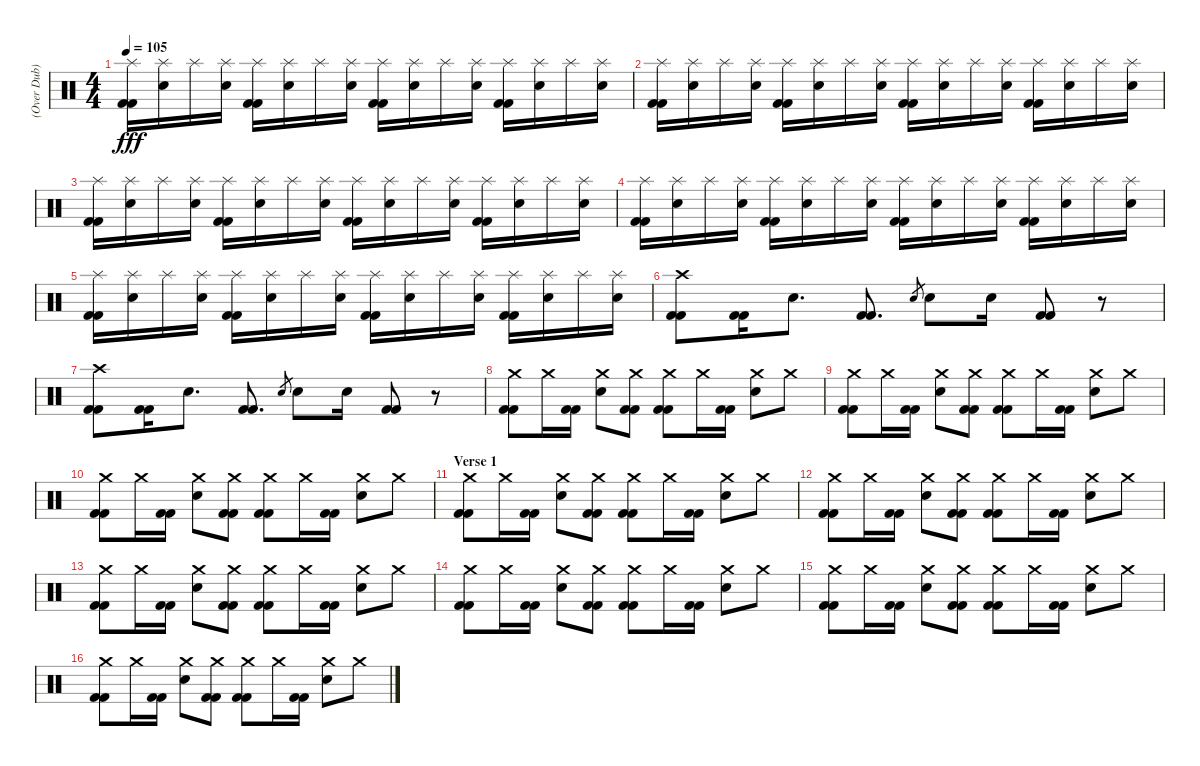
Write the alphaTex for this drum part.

\track ("(Over Dub)" "(Over Dub)") {instrument percussion}
\staff {score}
\articulation defaults
\ts (4 4)
\tempo 105
\clef neutral
\ks c
("Splash (hit)" "Kick (hit) 2" "Kick (hit) 2").16{dy fff} ("Splash (hit)" "Electric Snare (hit)").16 "Splash (hit)".16 ("Splash (hit)" "Electric Snare (hit)").16 ("Splash (hit)" "Kick (hit) 2" "Kick (hit) 2").16 ("Splash (hit)" "Electric Snare (hit)").16 "Splash (hit)".16 ("Splash (hit)" "Electric Snare (hit)").16 ("Splash (hit)" "Kick (hit) 2" "Kick (hit) 2").16 ("Splash (hit)" "Electric Snare (hit)").16 "Splash (hit)".16 ("Splash (hit)" "Electric Snare (hit)").16 ("Splash (hit)" "Kick (hit) 2" "Kick (hit) 2").16 ("Splash (hit)" "Electric Snare (hit)").16 "Splash (hit)".16 ("Splash (hit)" "Electric Snare (hit)").16 |
("Splash (hit)" "Kick (hit) 2" "Kick (hit) 2").16 ("Splash (hit)" "Electric Snare (hit)").16 "Splash (hit)".16 ("Splash (hit)" "Electric Snare (hit)").16 ("Splash (hit)" "Kick (hit) 2" "Kick (hit) 2").16 ("Splash (hit)" "Electric Snare (hit)").16 "Splash (hit)".16 ("Splash (hit)" "Electric Snare (hit)").16 ("Splash (hit)" "Kick (hit) 2" "Kick (hit) 2").16 ("Splash (hit)" "Electric Snare (hit)").16 "Splash (hit)".16 ("Splash (hit)" "Electric Snare (hit)").16 ("Splash (hit)" "Kick (hit) 2" "Kick (hit) 2").16 ("Splash (hit)" "Electric Snare (hit)").16 "Splash (hit)".16 ("Splash (hit)" "Electric Snare (hit)").16 |
("Splash (hit)" "Kick (hit) 2" "Kick (hit) 2").16 ("Splash (hit)" "Electric Snare (hit)").16 "Splash (hit)".16 ("Splash (hit)" "Electric Snare (hit)").16 ("Splash (hit)" "Kick (hit) 2" "Kick (hit) 2").16 ("Splash (hit)" "Electric Snare (hit)").16 "Splash (hit)".16 ("Splash (hit)" "Electric Snare (hit)").16 ("Splash (hit)" "Kick (hit) 2" "Kick (hit) 2").16 ("Splash (hit)" "Electric Snare (hit)").16 "Splash (hit)".16 ("Splash (hit)" "Electric Snare (hit)").16 ("Splash (hit)" "Kick (hit) 2" "Kick (hit) 2").16 ("Splash (hit)" "Electric Snare (hit)").16 "Splash (hit)".16 ("Splash (hit)" "Electric Snare (hit)").16 |
("Splash (hit)" "Kick (hit) 2" "Kick (hit) 2").16 ("Splash (hit)" "Electric Snare (hit)").16 "Splash (hit)".16 ("Splash (hit)" "Electric Snare (hit)").16 ("Splash (hit)" "Kick (hit) 2" "Kick (hit) 2").16 ("Splash (hit)" "Electric Snare (hit)").16 "Splash (hit)".16 ("Splash (hit)" "Electric Snare (hit)").16 ("Splash (hit)" "Kick (hit) 2" "Kick (hit) 2").16 ("Splash (hit)" "Electric Snare (hit)").16 "Splash (hit)".16 ("Splash (hit)" "Electric Snare (hit)").16 ("Splash (hit)" "Kick (hit) 2" "Kick (hit) 2").16 ("Splash (hit)" "Electric Snare (hit)").16 "Splash (hit)".16 ("Splash (hit)" "Electric Snare (hit)").16 |
("Splash (hit)" "Kick (hit) 2" "Kick (hit) 2").16 ("Splash (hit)" "Electric Snare (hit)").16 "Splash (hit)".16 ("Splash (hit)" "Electric Snare (hit)").16 ("Splash (hit)" "Kick (hit) 2" "Kick (hit) 2").16 ("Splash (hit)" "Electric Snare (hit)").16 "Splash (hit)".16 ("Splash (hit)" "Electric Snare (hit)").16 ("Splash (hit)" "Kick (hit) 2" "Kick (hit) 2").16 ("Splash (hit)" "Electric Snare (hit)").16 "Splash (hit)".16 ("Splash (hit)" "Electric Snare (hit)").16 ("Splash (hit)" "Kick (hit) 2" "Kick (hit) 2").16 ("Splash (hit)" "Electric Snare (hit)").16 "Splash (hit)".16 ("Splash (hit)" "Electric Snare (hit)").16 |
("Crash high (hit)" "Kick (hit) 2" "Kick (hit) 2").8 ("Kick (hit) 2" "Kick (hit) 2").16 "Electric Snare (hit)".8{d} ("Kick (hit) 2" "Kick (hit) 2").8{d} "Electric Snare (hit)".8{gr} "Electric Snare (hit)".8 "Electric Snare (hit)".16 ("Kick (hit) 2" "Kick (hit) 2").8 r.8 |
("Crash high (hit)" "Kick (hit) 2" "Kick (hit) 2").8 ("Kick (hit) 2" "Kick (hit) 2").16 "Electric Snare (hit)".8{d} ("Kick (hit) 2" "Kick (hit) 2").8{d} "Electric Snare (hit)".8{gr} "Electric Snare (hit)".8 "Electric Snare (hit)".16 ("Kick (hit) 2" "Kick (hit) 2").8 r.8 |
("Crash medium (hit)" "Kick (hit) 2" "Kick (hit) 2").8 "Crash medium (hit)".16 ("Kick (hit) 2" "Kick (hit) 2").16 ("Crash medium (hit)" "Electric Snare (hit)").8 ("Crash medium (hit)" "Kick (hit) 2" "Kick (hit) 2").8 ("Crash medium (hit)" "Kick (hit) 2" "Kick (hit) 2").8 "Crash medium (hit)".16 ("Kick (hit) 2" "Kick (hit) 2").16 ("Crash medium (hit)" "Electric Snare (hit)").8 "Crash medium (hit)".8 |
("Crash medium (hit)" "Kick (hit) 2" "Kick (hit) 2").8 "Crash medium (hit)".16 ("Kick (hit) 2" "Kick (hit) 2").16 ("Crash medium (hit)" "Electric Snare (hit)").8 ("Crash medium (hit)" "Kick (hit) 2" "Kick (hit) 2").8 ("Crash medium (hit)" "Kick (hit) 2" "Kick (hit) 2").8 "Crash medium (hit)".16 ("Kick (hit) 2" "Kick (hit) 2").16 ("Crash medium (hit)" "Electric Snare (hit)").8 "Crash medium (hit)".8 |
("Crash medium (hit)" "Kick (hit) 2" "Kick (hit) 2").8 "Crash medium (hit)".16 ("Kick (hit) 2" "Kick (hit) 2").16 ("Crash medium (hit)" "Electric Snare (hit)").8 ("Crash medium (hit)" "Kick (hit) 2" "Kick (hit) 2").8 ("Crash medium (hit)" "Kick (hit) 2" "Kick (hit) 2").8 "Crash medium (hit)".16 ("Kick (hit) 2" "Kick (hit) 2").16 ("Crash medium (hit)" "Electric Snare (hit)").8 "Crash medium (hit)".8 |
\section ("" "Verse 1")
("Crash medium (hit)" "Kick (hit) 2" "Kick (hit) 2").8 "Crash medium (hit)".16 ("Kick (hit) 2" "Kick (hit) 2").16 ("Crash medium (hit)" "Electric Snare (hit)").8 ("Crash medium (hit)" "Kick (hit) 2" "Kick (hit) 2").8 ("Crash medium (hit)" "Kick (hit) 2" "Kick (hit) 2").8 "Crash medium (hit)".16 ("Kick (hit) 2" "Kick (hit) 2").16 ("Crash medium (hit)" "Electric Snare (hit)").8 "Crash medium (hit)".8 |
("Crash medium (hit)" "Kick (hit) 2" "Kick (hit) 2").8 "Crash medium (hit)".16 ("Kick (hit) 2" "Kick (hit) 2").16 ("Crash medium (hit)" "Electric Snare (hit)").8 ("Crash medium (hit)" "Kick (hit) 2" "Kick (hit) 2").8 ("Crash medium (hit)" "Kick (hit) 2" "Kick (hit) 2").8 "Crash medium (hit)".16 ("Kick (hit) 2" "Kick (hit) 2").16 ("Crash medium (hit)" "Electric Snare (hit)").8 "Crash medium (hit)".8 |
("Crash medium (hit)" "Kick (hit) 2" "Kick (hit) 2").8 "Crash medium (hit)".16 ("Kick (hit) 2" "Kick (hit) 2").16 ("Crash medium (hit)" "Electric Snare (hit)").8 ("Crash medium (hit)" "Kick (hit) 2" "Kick (hit) 2").8 ("Crash medium (hit)" "Kick (hit) 2" "Kick (hit) 2").8 "Crash medium (hit)".16 ("Kick (hit) 2" "Kick (hit) 2").16 ("Crash medium (hit)" "Electric Snare (hit)").8 "Crash medium (hit)".8 |
("Crash medium (hit)" "Kick (hit) 2" "Kick (hit) 2").8 "Crash medium (hit)".16 ("Kick (hit) 2" "Kick (hit) 2").16 ("Crash medium (hit)" "Electric Snare (hit)").8 ("Crash medium (hit)" "Kick (hit) 2" "Kick (hit) 2").8 ("Crash medium (hit)" "Kick (hit) 2" "Kick (hit) 2").8 "Crash medium (hit)".16 ("Kick (hit) 2" "Kick (hit) 2").16 ("Crash medium (hit)" "Electric Snare (hit)").8 "Crash medium (hit)".8 |
("Crash medium (hit)" "Kick (hit) 2" "Kick (hit) 2").8 "Crash medium (hit)".16 ("Kick (hit) 2" "Kick (hit) 2").16 ("Crash medium (hit)" "Electric Snare (hit)").8 ("Crash medium (hit)" "Kick (hit) 2" "Kick (hit) 2").8 ("Crash medium (hit)" "Kick (hit) 2" "Kick (hit) 2").8 "Crash medium (hit)".16 ("Kick (hit) 2" "Kick (hit) 2").16 ("Crash medium (hit)" "Electric Snare (hit)").8 "Crash medium (hit)".8 |
("Crash medium (hit)" "Kick (hit) 2" "Kick (hit) 2").8 "Crash medium (hit)".16 ("Kick (hit) 2" "Kick (hit) 2").16 ("Crash medium (hit)" "Electric Snare (hit)").8 ("Crash medium (hit)" "Kick (hit) 2" "Kick (hit) 2").8 ("Crash medium (hit)" "Kick (hit) 2" "Kick (hit) 2").8 "Crash medium (hit)".16 ("Kick (hit) 2" "Kick (hit) 2").16 ("Crash medium (hit)" "Electric Snare (hit)").8 "Crash medium (hit)".8
